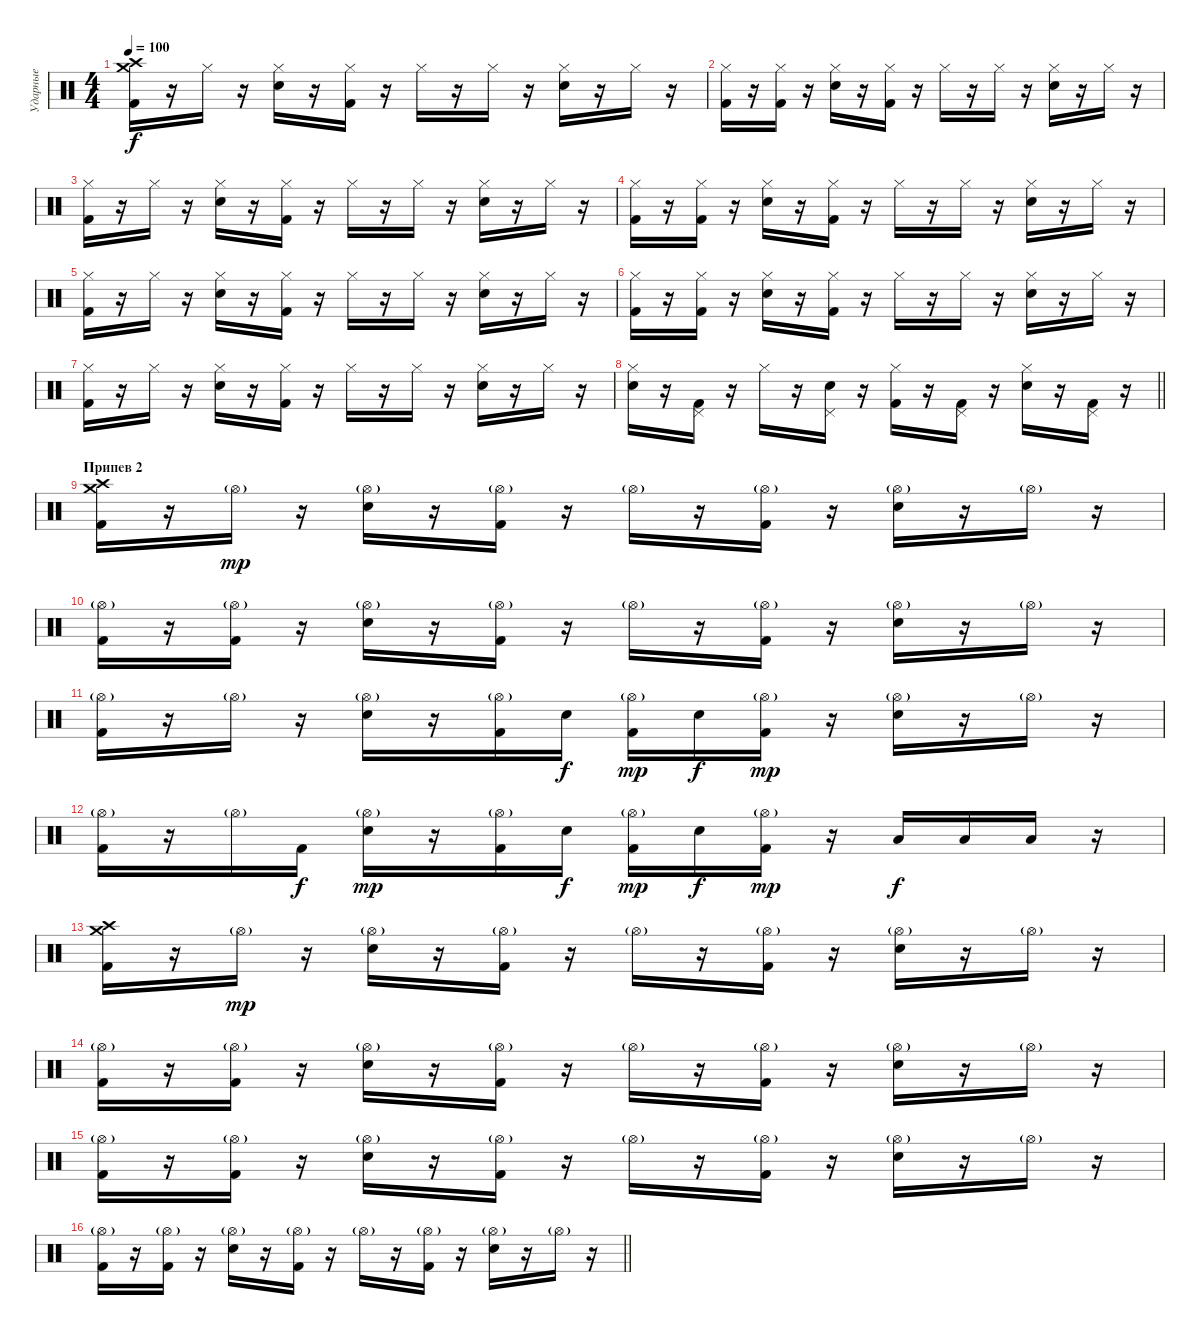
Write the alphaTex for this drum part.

\track ("Ударные" "Ударные") {instrument percussion}
\staff {score}
\articulation defaults
\ts (4 4)
\tempo 100
\clef neutral
\ks c
("Crash high (hit)" "Crash medium (hit)" "Kick (hit) 2").16{dy f} r.16 "Hi-Hat (closed)".16 r.16 ("Hi-Hat (closed)" "Electric Snare (hit)").16 r.16 ("Hi-Hat (closed)" "Kick (hit) 2").16 r.16 "Hi-Hat (closed)".16 r.16 "Hi-Hat (closed)".16 r.16 ("Hi-Hat (closed)" "Electric Snare (hit)").16 r.16 "Hi-Hat (closed)".16 r.16 |
("Hi-Hat (closed)" "Kick (hit) 2").16 r.16 ("Hi-Hat (closed)" "Kick (hit) 2").16 r.16 ("Hi-Hat (closed)" "Electric Snare (hit)").16 r.16 ("Hi-Hat (closed)" "Kick (hit) 2").16 r.16 "Hi-Hat (closed)".16 r.16 "Hi-Hat (closed)".16 r.16 ("Hi-Hat (closed)" "Electric Snare (hit)").16 r.16 "Hi-Hat (closed)".16 r.16 |
("Hi-Hat (closed)" "Kick (hit) 2").16 r.16 "Hi-Hat (closed)".16 r.16 ("Hi-Hat (closed)" "Electric Snare (hit)").16 r.16 ("Hi-Hat (closed)" "Kick (hit) 2").16 r.16 "Hi-Hat (closed)".16 r.16 "Hi-Hat (closed)".16 r.16 ("Hi-Hat (closed)" "Electric Snare (hit)").16 r.16 "Hi-Hat (closed)".16 r.16 |
("Hi-Hat (closed)" "Kick (hit) 2").16 r.16 ("Hi-Hat (closed)" "Kick (hit) 2").16 r.16 ("Hi-Hat (closed)" "Electric Snare (hit)").16 r.16 ("Hi-Hat (closed)" "Kick (hit) 2").16 r.16 "Hi-Hat (closed)".16 r.16 "Hi-Hat (closed)".16 r.16 ("Hi-Hat (closed)" "Electric Snare (hit)").16 r.16 "Hi-Hat (closed)".16 r.16 |
("Hi-Hat (closed)" "Kick (hit) 2").16 r.16 "Hi-Hat (closed)".16 r.16 ("Hi-Hat (closed)" "Electric Snare (hit)").16 r.16 ("Hi-Hat (closed)" "Kick (hit) 2").16 r.16 "Hi-Hat (closed)".16 r.16 "Hi-Hat (closed)".16 r.16 ("Hi-Hat (closed)" "Electric Snare (hit)").16 r.16 "Hi-Hat (closed)".16 r.16 |
("Hi-Hat (closed)" "Kick (hit) 2").16 r.16 ("Hi-Hat (closed)" "Kick (hit) 2").16 r.16 ("Hi-Hat (closed)" "Electric Snare (hit)").16 r.16 ("Hi-Hat (closed)" "Kick (hit) 2").16 r.16 "Hi-Hat (closed)".16 r.16 "Hi-Hat (closed)".16 r.16 ("Hi-Hat (closed)" "Electric Snare (hit)").16 r.16 "Hi-Hat (closed)".16 r.16 |
("Hi-Hat (closed)" "Kick (hit) 2").16 r.16 "Hi-Hat (closed)".16 r.16 ("Hi-Hat (closed)" "Electric Snare (hit)").16 r.16 ("Hi-Hat (closed)" "Kick (hit) 2").16 r.16 "Hi-Hat (closed)".16 r.16 "Hi-Hat (closed)".16 r.16 ("Hi-Hat (closed)" "Electric Snare (hit)").16 r.16 "Hi-Hat (closed)".16 r.16 |
\barLineRight lightlight
("Hi-Hat (closed)" "Electric Snare (hit)").16 r.16 ("Pedal Hi-Hat (hit)" "Kick (hit) 2").16 r.16 "Hi-Hat (closed)".16 r.16 ("Pedal Hi-Hat (hit)" "Electric Snare (hit)").16 r.16 ("Hi-Hat (closed)" "Kick (hit) 2").16 r.16 ("Pedal Hi-Hat (hit)" "Kick (hit) 2").16 r.16 ("Hi-Hat (closed)" "Electric Snare (hit)").16 r.16 ("Pedal Hi-Hat (hit)" "Kick (hit) 2").16 r.16 |
\section ("" "Припев 2")
("Crash high (hit)" "Crash medium (hit)" "Kick (hit) 2").16 r.16 "Hi-Hat (open)"{g}.16{dy mp} r.16 ("Hi-Hat (open)"{g} "Electric Snare (hit)").16 r.16 ("Hi-Hat (open)"{g} "Kick (hit) 2").16 r.16 "Hi-Hat (open)"{g}.16 r.16 ("Hi-Hat (open)"{g} "Kick (hit) 2").16 r.16 ("Hi-Hat (open)"{g} "Electric Snare (hit)").16 r.16 "Hi-Hat (open)"{g}.16 r.16 |
("Hi-Hat (open)"{g} "Kick (hit) 2").16 r.16 ("Hi-Hat (open)"{g} "Kick (hit) 2").16 r.16 ("Hi-Hat (open)"{g} "Electric Snare (hit)").16 r.16 ("Hi-Hat (open)"{g} "Kick (hit) 2").16 r.16 "Hi-Hat (open)"{g}.16 r.16 ("Hi-Hat (open)"{g} "Kick (hit) 2").16 r.16 ("Hi-Hat (open)"{g} "Electric Snare (hit)").16 r.16 "Hi-Hat (open)"{g}.16 r.16 |
("Hi-Hat (open)"{g} "Kick (hit) 2").16 r.16 "Hi-Hat (open)"{g}.16 r.16 ("Hi-Hat (open)"{g} "Electric Snare (hit)").16 r.16 ("Hi-Hat (open)"{g} "Kick (hit) 2").16 "Electric Snare (hit)".16{dy f} ("Hi-Hat (open)"{g} "Kick (hit) 2").16{dy mp} "Electric Snare (hit)".16{dy f} ("Hi-Hat (open)"{g} "Kick (hit) 2").16{dy mp} r.16 ("Hi-Hat (open)"{g} "Electric Snare (hit)").16 r.16 "Hi-Hat (open)"{g}.16 r.16 |
("Hi-Hat (open)"{g} "Kick (hit) 2").16 r.16 "Hi-Hat (open)"{g}.16 "Kick (hit) 2".16{dy f} ("Hi-Hat (open)"{g} "Electric Snare (hit)").16{dy mp} r.16 ("Hi-Hat (open)"{g} "Kick (hit) 2").16 "Electric Snare (hit)".16{dy f} ("Hi-Hat (open)"{g} "Kick (hit) 2").16{dy mp} "Electric Snare (hit)".16{dy f} ("Hi-Hat (open)"{g} "Kick (hit) 2").16{dy mp} r.16 "Low Tom (hit)".16{dy f} "Low Tom (hit)".16 "Low Floor Tom (hit)".16 r.16 |
("Crash high (hit)" "Crash medium (hit)" "Kick (hit) 2").16 r.16 "Hi-Hat (open)"{g}.16{dy mp} r.16 ("Hi-Hat (open)"{g} "Electric Snare (hit)").16 r.16 ("Hi-Hat (open)"{g} "Kick (hit) 2").16 r.16 "Hi-Hat (open)"{g}.16 r.16 ("Hi-Hat (open)"{g} "Kick (hit) 2").16 r.16 ("Hi-Hat (open)"{g} "Electric Snare (hit)").16 r.16 "Hi-Hat (open)"{g}.16 r.16 |
("Hi-Hat (open)"{g} "Kick (hit) 2").16 r.16 ("Hi-Hat (open)"{g} "Kick (hit) 2").16 r.16 ("Hi-Hat (open)"{g} "Electric Snare (hit)").16 r.16 ("Hi-Hat (open)"{g} "Kick (hit) 2").16 r.16 "Hi-Hat (open)"{g}.16 r.16 ("Hi-Hat (open)"{g} "Kick (hit) 2").16 r.16 ("Hi-Hat (open)"{g} "Electric Snare (hit)").16 r.16 "Hi-Hat (open)"{g}.16 r.16 |
("Hi-Hat (open)"{g} "Kick (hit) 2").16 r.16 ("Hi-Hat (open)"{g} "Kick (hit) 2").16 r.16 ("Hi-Hat (open)"{g} "Electric Snare (hit)").16 r.16 ("Hi-Hat (open)"{g} "Kick (hit) 2").16 r.16 "Hi-Hat (open)"{g}.16 r.16 ("Hi-Hat (open)"{g} "Kick (hit) 2").16 r.16 ("Hi-Hat (open)"{g} "Electric Snare (hit)").16 r.16 "Hi-Hat (open)"{g}.16 r.16 |
\barLineRight lightlight
("Hi-Hat (open)"{g} "Kick (hit) 2").16 r.16 ("Hi-Hat (open)"{g} "Kick (hit) 2").16 r.16 ("Hi-Hat (open)"{g} "Electric Snare (hit)").16 r.16 ("Hi-Hat (open)"{g} "Kick (hit) 2").16 r.16 "Hi-Hat (open)"{g}.16 r.16 ("Hi-Hat (open)"{g} "Kick (hit) 2").16 r.16 ("Hi-Hat (open)"{g} "Electric Snare (hit)").16 r.16 "Hi-Hat (open)"{g}.16 r.16
